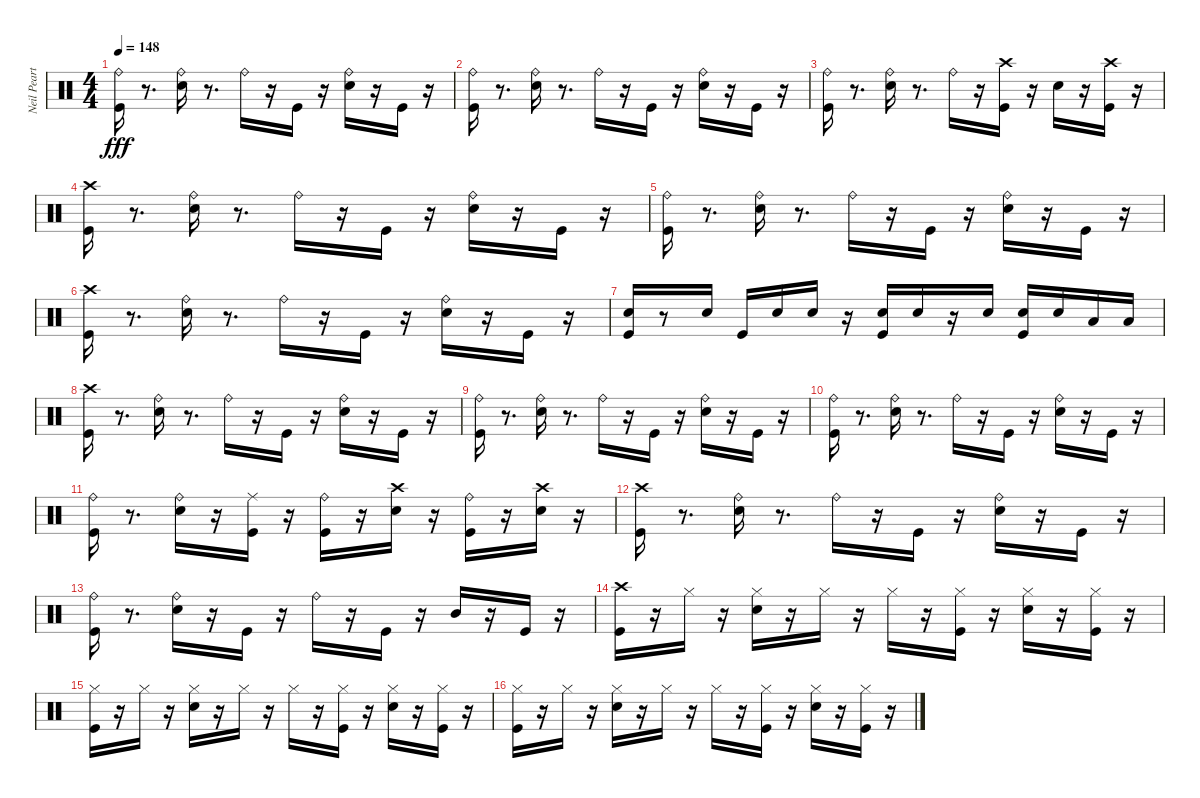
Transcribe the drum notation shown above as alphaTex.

\track ("Neil Peart" "Neil Peart") {instrument percussion}
\staff {score}
\articulation defaults
\ts (4 4)
\tempo 148
\clef neutral
\ks c
("Ride (bell)" "Kick (hit)").16{dy fff} r.8{d} ("Ride (bell)" "Snare (hit) 2").16 r.8{d} "Ride (bell)".16 r.16 "Kick (hit)".16 r.16 ("Ride (bell)" "Snare (hit) 2").16 r.16 "Kick (hit)".16 r.16 |
("Ride (bell)" "Kick (hit)").16 r.8{d} ("Ride (bell)" "Snare (hit) 2").16 r.8{d} "Ride (bell)".16 r.16 "Kick (hit)".16 r.16 ("Ride (bell)" "Snare (hit) 2").16 r.16 "Kick (hit)".16 r.16 |
("Kick (hit)" "Ride (bell)").16 r.8{d} ("Snare (hit) 2" "Ride (bell)").16 r.8{d} "Ride (bell)".16 r.16 ("Crash high (hit)" "Kick (hit)").16 r.16 "Snare (hit) 2".16 r.16 ("Crash high (hit)" "Kick (hit)").16 r.16 |
("Crash high (hit)" "Kick (hit)").16 r.8{d} ("Ride (bell)" "Snare (hit) 2").16 r.8{d} "Ride (bell)".16 r.16 "Kick (hit)".16 r.16 ("Ride (bell)" "Snare (hit) 2").16 r.16 "Kick (hit)".16 r.16 |
("Ride (bell)" "Kick (hit)").16 r.8{d} ("Ride (bell)" "Snare (hit) 2").16 r.8{d} "Ride (bell)".16 r.16 "Kick (hit)".16 r.16 ("Ride (bell)" "Snare (hit) 2").16 r.16 "Kick (hit)".16 r.16 |
("Crash high (hit)" "Kick (hit)").16 r.8{d} ("Snare (hit) 2" "Ride (bell)").16 r.8{d} "Ride (bell)".16 r.16 "Kick (hit)".16 r.16 ("Snare (hit) 2" "Ride (bell)").16 r.16 "Kick (hit)".16 r.16 |
("Snare (hit) 2" "Kick (hit)").16 r.8 "Snare (hit) 2".16 "Kick (hit)".16 "Snare (hit) 2".16 "Snare (hit) 2".16 r.16 ("Snare (hit) 2" "Kick (hit)").16 "Snare (hit) 2".16 r.16 "Snare (hit) 2".16 ("Snare (hit) 2" "Kick (hit)").16 "Snare (hit) 2".16 "Low Tom (hit)".16 "Low Tom (hit)".16 |
("Crash high (hit)" "Kick (hit)").16 r.8{d} ("Snare (hit) 2" "Ride (bell)").16 r.8{d} "Ride (bell)".16 r.16 "Kick (hit)".16 r.16 ("Snare (hit) 2" "Ride (bell)").16 r.16 "Kick (hit)".16 r.16 |
("Ride (bell)" "Kick (hit)").16 r.8{d} ("Ride (bell)" "Snare (hit) 2").16 r.8{d} "Ride (bell)".16 r.16 "Kick (hit)".16 r.16 ("Ride (bell)" "Snare (hit) 2").16 r.16 "Kick (hit)".16 r.16 |
("Ride (bell)" "Kick (hit)").16 r.8{d} ("Ride (bell)" "Snare (hit) 2").16 r.8{d} "Ride (bell)".16 r.16 "Kick (hit)".16 r.16 ("Ride (bell)" "Snare (hit) 2").16 r.16 "Kick (hit)".16 r.16 |
("Kick (hit)" "Ride (bell)").16 r.8{d} ("Snare (hit) 2" "Ride (bell)").16 r.16 ("Kick (hit)" "Ride (middle)").16 r.16 ("Kick (hit)" "Ride (bell)").16 r.16 ("Crash high (hit)" "Snare (hit) 2").16 r.16 ("Kick (hit)" "Ride (bell)").16 r.16 ("Crash high (hit)" "Snare (hit) 2").16 r.16 |
("Crash high (hit)" "Kick (hit)").16 r.8{d} ("Ride (bell)" "Snare (hit) 2").16 r.8{d} "Ride (bell)".16 r.16 "Kick (hit)".16 r.16 ("Ride (bell)" "Snare (hit) 2").16 r.16 "Kick (hit)".16 r.16 |
("Kick (hit)" "Ride (bell)").16 r.8{d} ("Snare (hit) 2" "Ride (bell)").16 r.16 "Kick (hit)".16 r.16 "Ride (bell)".16 r.16 "Kick (hit)".16 r.16 "Mid Tom (hit)".16 r.16 "Kick (hit)".16 r.16 |
("Crash high (hit)" "Kick (hit)").16 r.16 "Hi-Hat (closed)".16 r.16 ("Hi-Hat (closed)" "Snare (hit) 2").16 r.16 "Hi-Hat (closed)".16 r.16 "Hi-Hat (closed)".16 r.16 ("Hi-Hat (closed)" "Kick (hit)").16 r.16 ("Hi-Hat (closed)" "Snare (hit) 2").16 r.16 ("Hi-Hat (closed)" "Kick (hit)").16 r.16 |
("Hi-Hat (closed)" "Kick (hit)").16 r.16 "Hi-Hat (closed)".16 r.16 ("Hi-Hat (closed)" "Snare (hit) 2").16 r.16 "Hi-Hat (closed)".16 r.16 "Hi-Hat (closed)".16 r.16 ("Hi-Hat (closed)" "Kick (hit)").16 r.16 ("Hi-Hat (closed)" "Snare (hit) 2").16 r.16 ("Hi-Hat (closed)" "Kick (hit)").16 r.16 |
("Hi-Hat (closed)" "Kick (hit)").16 r.16 "Hi-Hat (closed)".16 r.16 ("Hi-Hat (closed)" "Snare (hit) 2").16 r.16 "Hi-Hat (closed)".16 r.16 "Hi-Hat (closed)".16 r.16 ("Hi-Hat (closed)" "Kick (hit)").16 r.16 ("Hi-Hat (closed)" "Snare (hit) 2").16 r.16 ("Hi-Hat (closed)" "Kick (hit)").16 r.16
